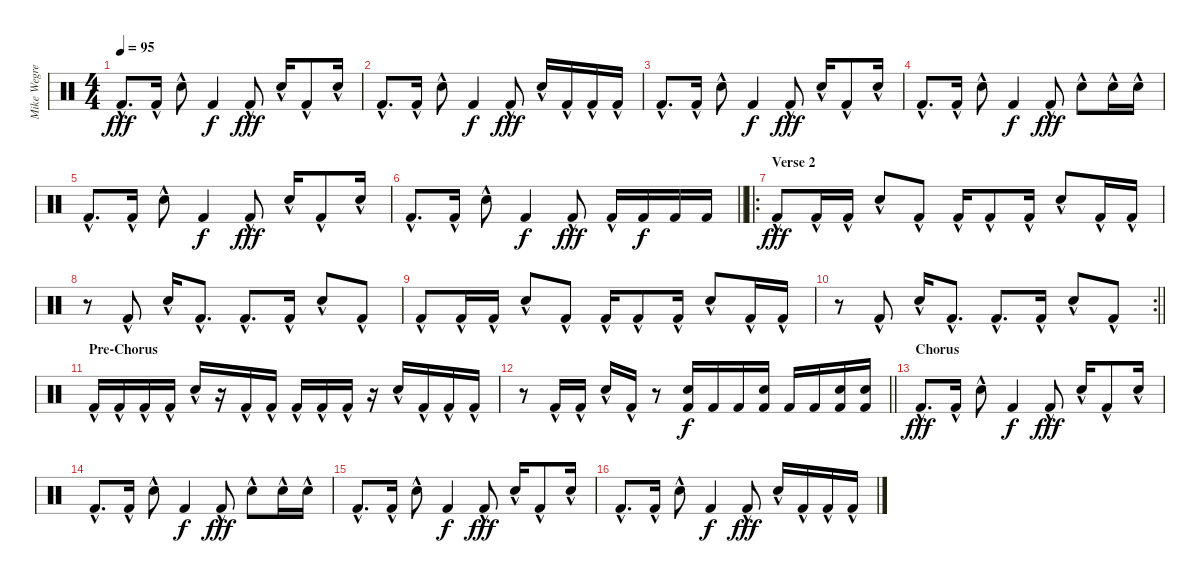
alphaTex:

\track ("Mike Wegren 2" "Mike Wegre") {instrument percussion}
\staff {score}
\articulation defaults
\ts (4 4)
\tempo 95
\clef neutral
\ks c "Kick (hit) 2"{hac}.8{d dy fff} "Kick (hit) 2"{hac}.16 "Snare (hit) 2"{hac}.8 "Kick (hit) 2".4{dy f} "Kick (hit) 2"{hac}.8{dy fff} "Snare (hit) 2"{hac}.16 "Kick (hit) 2"{hac}.8 "Snare (hit) 2"{hac}.16
|
"Kick (hit) 2"{hac}.8{d} "Kick (hit) 2"{hac}.16 "Snare (hit) 2"{hac}.8 "Kick (hit) 2".4{dy f} "Kick (hit) 2"{hac}.8{dy fff} "Snare (hit) 2"{hac}.16 "Kick (hit) 2"{hac}.16 "Kick (hit) 2"{hac}.16 "Kick (hit) 2"{hac}.16 |
"Kick (hit) 2"{hac}.8{d} "Kick (hit) 2"{hac}.16 "Snare (hit) 2"{hac}.8 "Kick (hit) 2".4{dy f} "Kick (hit) 2"{hac}.8{dy fff} "Snare (hit) 2"{hac}.16 "Kick (hit) 2"{hac}.8 "Snare (hit) 2"{hac}.16 |
"Kick (hit) 2"{hac}.8{d} "Kick (hit) 2"{hac}.16 "Snare (hit) 2"{hac}.8 "Kick (hit) 2".4{dy f} "Kick (hit) 2"{hac}.8{dy fff} "Snare (hit) 2"{hac}.8 "Snare (hit) 2"{hac}.16 "Snare (hit) 2"{hac}.16 |
"Kick (hit) 2"{hac}.8{d} "Kick (hit) 2"{hac}.16 "Snare (hit) 2"{hac}.8 "Kick (hit) 2".4{dy f} "Kick (hit) 2"{hac}.8{dy fff} "Snare (hit) 2"{hac}.16 "Kick (hit) 2"{hac}.8 "Snare (hit) 2"{hac}.16 |
\barLineRight lightlight "Kick (hit) 2"{hac}.8{d} "Kick (hit) 2"{hac}.16 "Snare (hit) 2"{hac}.8 "Kick (hit) 2".4{dy f} "Kick (hit) 2"{hac}.8{dy fff} "Kick (hit) 2"{hac}.16 "Kick (hit) 2".16{dy f} "Kick (hit) 2".16 "Kick (hit) 2".16
|
\ro
\section ("" "Verse 2")
"Kick (hit) 2"{hac}.8{dy fff} "Kick (hit) 2"{hac}.16 "Kick (hit) 2"{hac}.16 "Snare (hit) 2"{hac}.8 "Kick (hit) 2"{hac}.8 "Kick (hit) 2"{hac}.16 "Kick (hit) 2"{hac}.8 "Kick (hit) 2"{hac}.16 "Snare (hit) 2"{hac}.8 "Kick (hit) 2"{hac}.16 "Kick (hit) 2"{hac}.16 |
r.8 "Kick (hit) 2"{hac}.8 "Snare (hit) 2"{hac}.16 "Kick (hit) 2"{hac}.8{d} "Kick (hit) 2"{hac}.8{d} "Kick (hit) 2"{hac}.16 "Snare (hit) 2"{hac}.8 "Kick (hit) 2"{hac}.8 |
"Kick (hit) 2"{hac}.8 "Kick (hit) 2"{hac}.16 "Kick (hit) 2"{hac}.16 "Snare (hit) 2"{hac}.8 "Kick (hit) 2"{hac}.8 "Kick (hit) 2"{hac}.16 "Kick (hit) 2"{hac}.8 "Kick (hit) 2"{hac}.16 "Snare (hit) 2"{hac}.8 "Kick (hit) 2"{hac}.16 "Kick (hit) 2"{hac}.16 |
\rc 2
\barLineRight lightlight
r.8 "Kick (hit) 2"{hac}.8 "Snare (hit) 2"{hac}.16 "Kick (hit) 2"{hac}.8{d} "Kick (hit) 2"{hac}.8{d} "Kick (hit) 2"{hac}.16 "Snare (hit) 2"{hac}.8 "Kick (hit) 2"{hac}.8 |
\section ("" "Pre-Chorus")
"Kick (hit) 2"{hac}.16 "Kick (hit) 2"{hac}.16 "Kick (hit) 2"{hac}.16 "Kick (hit) 2"{hac}.16 "Snare (hit) 2"{hac}.16 r.16 "Kick (hit) 2"{hac}.16 "Kick (hit) 2"{hac}.16 "Kick (hit) 2"{hac}.16 "Kick (hit) 2"{hac}.16 "Kick (hit) 2"{hac}.16 r.16 "Snare (hit) 2"{hac}.16 "Kick (hit) 2"{hac}.16 "Kick (hit) 2"{hac}.16 "Kick (hit) 2"{hac}.16 |
\barLineRight lightlight
r.8 "Kick (hit) 2"{hac}.16 "Kick (hit) 2"{hac}.16 "Snare (hit) 2"{hac}.16 "Kick (hit) 2"{hac}.16 r.8 ("Snare (hit) 2" "Kick (hit) 2").16{dy f} "Kick (hit) 2".16 "Kick (hit) 2".16 ("Snare (hit) 2" "Kick (hit) 2").16 "Kick (hit) 2".16 "Kick (hit) 2".16 ("Snare (hit) 2" "Kick (hit) 2").16 ("Snare (hit) 2" "Kick (hit) 2").16 |
\section ("" "Chorus")
"Kick (hit) 2"{hac}.8{d dy fff} "Kick (hit) 2"{hac}.16 "Snare (hit) 2"{hac}.8 "Kick (hit) 2".4{dy f} "Kick (hit) 2"{hac}.8{dy fff} "Snare (hit) 2"{hac}.16 "Kick (hit) 2"{hac}.8 "Snare (hit) 2"{hac}.16 |
"Kick (hit) 2"{hac}.8{d} "Kick (hit) 2"{hac}.16 "Snare (hit) 2"{hac}.8 "Kick (hit) 2".4{dy f} "Kick (hit) 2"{hac}.8{dy fff} "Snare (hit) 2"{hac}.8 "Snare (hit) 2"{hac}.16 "Snare (hit) 2"{hac}.16 |
"Kick (hit) 2"{hac}.8{d} "Kick (hit) 2"{hac}.16 "Snare (hit) 2"{hac}.8 "Kick (hit) 2".4{dy f} "Kick (hit) 2"{hac}.8{dy fff} "Snare (hit) 2"{hac}.16 "Kick (hit) 2"{hac}.8 "Snare (hit) 2"{hac}.16 |
"Kick (hit) 2"{hac}.8{d} "Kick (hit) 2"{hac}.16 "Snare (hit) 2"{hac}.8 "Kick (hit) 2".4{dy f} "Kick (hit) 2"{hac}.8{dy fff} "Snare (hit) 2"{hac}.16 "Kick (hit) 2"{hac}.16 "Kick (hit) 2"{hac}.16 "Kick (hit) 2"{hac}.16
